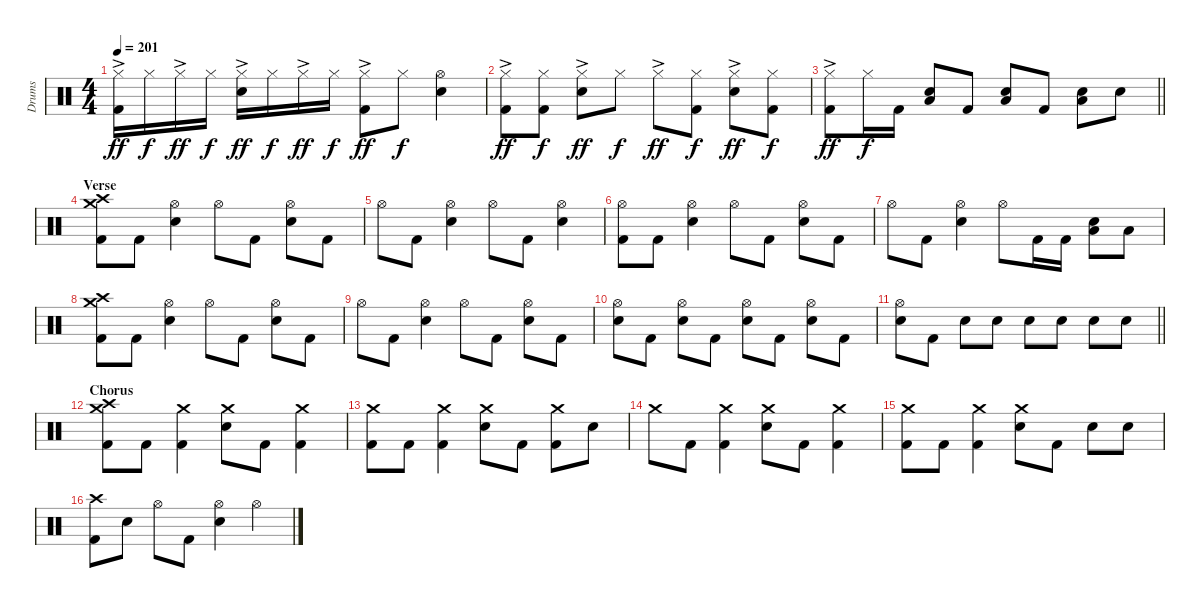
\track ("Drums" "Drums") {instrument percussion}
\staff {score}
\articulation defaults
\ts (4 4)
\tempo 201
\clef neutral
\ks c
("Hi-Hat (closed)"{ac} "Kick (hit) 2").16{dy ff} "Hi-Hat (closed)".16{dy f} "Hi-Hat (closed)"{ac}.16{dy ff} "Hi-Hat (closed)".16{dy f} ("Hi-Hat (closed)"{ac} "Electric Snare (hit)").16{dy ff} "Hi-Hat (closed)".16{dy f} "Hi-Hat (closed)"{ac}.16{dy ff} "Hi-Hat (closed)".16{dy f} ("Hi-Hat (closed)"{ac} "Kick (hit) 2").8{dy ff} "Hi-Hat (closed)".8{dy f} ("Hi-Hat (open)" "Electric Snare (hit)").4 |
("Hi-Hat (closed)"{ac} "Kick (hit) 2").8{dy ff} ("Hi-Hat (closed)" "Kick (hit) 2").8{dy f} ("Hi-Hat (closed)"{ac} "Electric Snare (hit)").8{dy ff} "Hi-Hat (closed)".8{dy f} "Hi-Hat (closed)"{ac}.8{dy ff} ("Hi-Hat (closed)" "Kick (hit) 2").8{dy f} ("Hi-Hat (closed)"{ac} "Electric Snare (hit)").8{dy ff} ("Hi-Hat (closed)" "Kick (hit) 2").8{dy f} |
\barLineRight lightlight
("Hi-Hat (closed)"{ac} "Kick (hit) 2").8{dy ff} "Hi-Hat (closed)".16{dy f} "Kick (hit) 2".16 ("Electric Snare (hit)" "Low Floor Tom (hit)").8 "Kick (hit) 2".8 ("Electric Snare (hit)" "Low Floor Tom (hit)").8 "Kick (hit) 2".8 ("Electric Snare (hit)" "Low Floor Tom (hit)").8 "Electric Snare (hit)".8 |
\section ("" "Verse")
("Crash medium (hit)" "Crash high (hit)" "Kick (hit) 2").8 "Kick (hit) 2".8 ("Hi-Hat (open)" "Electric Snare (hit)").4 "Hi-Hat (open)".8 "Kick (hit) 2".8 ("Hi-Hat (open)" "Electric Snare (hit)").8 "Kick (hit) 2".8 |
"Hi-Hat (open)".8 "Kick (hit) 2".8 ("Hi-Hat (open)" "Electric Snare (hit)").4 "Hi-Hat (open)".8 "Kick (hit) 2".8 ("Hi-Hat (open)" "Electric Snare (hit)").4 |
("Hi-Hat (open)" "Kick (hit) 2").8 "Kick (hit) 2".8 ("Hi-Hat (open)" "Electric Snare (hit)").4 "Hi-Hat (open)".8 "Kick (hit) 2".8 ("Hi-Hat (open)" "Electric Snare (hit)").8 "Kick (hit) 2".8 |
"Hi-Hat (open)".8 "Kick (hit) 2".8 ("Hi-Hat (open)" "Electric Snare (hit)").4 "Hi-Hat (open)".8 "Kick (hit) 2".16 "Kick (hit) 2".16 ("Electric Snare (hit)" "Low Floor Tom (hit)").8 "Low Tom (hit)".8 |
("Crash medium (hit)" "Crash high (hit)" "Kick (hit) 2").8 "Kick (hit) 2".8 ("Hi-Hat (open)" "Electric Snare (hit)").4 "Hi-Hat (open)".8 "Kick (hit) 2".8 ("Hi-Hat (open)" "Electric Snare (hit)").8 "Kick (hit) 2".8 |
"Hi-Hat (open)".8 "Kick (hit) 2".8 ("Hi-Hat (open)" "Electric Snare (hit)").4 "Hi-Hat (open)".8 "Kick (hit) 2".8 ("Hi-Hat (open)" "Electric Snare (hit)").8 "Kick (hit) 2".8 |
("Hi-Hat (open)" "Electric Snare (hit)").8 "Kick (hit) 2".8 ("Hi-Hat (open)" "Electric Snare (hit)").8 "Kick (hit) 2".8 ("Hi-Hat (open)" "Electric Snare (hit)").8 "Kick (hit) 2".8 ("Hi-Hat (open)" "Electric Snare (hit)").8 "Kick (hit) 2".8 |
\barLineRight lightlight
("Hi-Hat (open)" "Electric Snare (hit)").8 "Kick (hit) 2".8 "Electric Snare (hit)".8 "Electric Snare (hit)".8 "Electric Snare (hit)".8 "Electric Snare (hit)".8 "Electric Snare (hit)".8 "Electric Snare (hit)".8 |
\section ("" "Chorus")
("Crash medium (hit)" "Crash high (hit)" "Kick (hit) 2").8 "Kick (hit) 2".8 ("Crash medium (hit)" "Kick (hit) 2").4 ("Crash medium (hit)" "Electric Snare (hit)").8 "Kick (hit) 2".8 ("Crash medium (hit)" "Kick (hit) 2").4 |
("Crash medium (hit)" "Kick (hit) 2").8 "Kick (hit) 2".8 ("Crash medium (hit)" "Kick (hit) 2").4 ("Crash medium (hit)" "Electric Snare (hit)").8 "Kick (hit) 2".8 ("Crash medium (hit)" "Kick (hit) 2").8 "Electric Snare (hit)".8 |
"Crash medium (hit)".8 "Kick (hit) 2".8 ("Crash medium (hit)" "Kick (hit) 2").4 ("Crash medium (hit)" "Electric Snare (hit)").8 "Kick (hit) 2".8 ("Crash medium (hit)" "Kick (hit) 2").4 |
("Crash medium (hit)" "Kick (hit) 2").8 "Kick (hit) 2".8 ("Crash medium (hit)" "Kick (hit) 2").4 ("Crash medium (hit)" "Electric Snare (hit)").8 "Kick (hit) 2".8 "Electric Snare (hit)".8 "Electric Snare (hit)".8 |
("Crash high (hit)" "Kick (hit) 2").8 "Electric Snare (hit)".8 "Hi-Hat (open)".8 "Kick (hit) 2".8 ("Hi-Hat (open)" "Electric Snare (hit)").4 "Hi-Hat (open)".4
